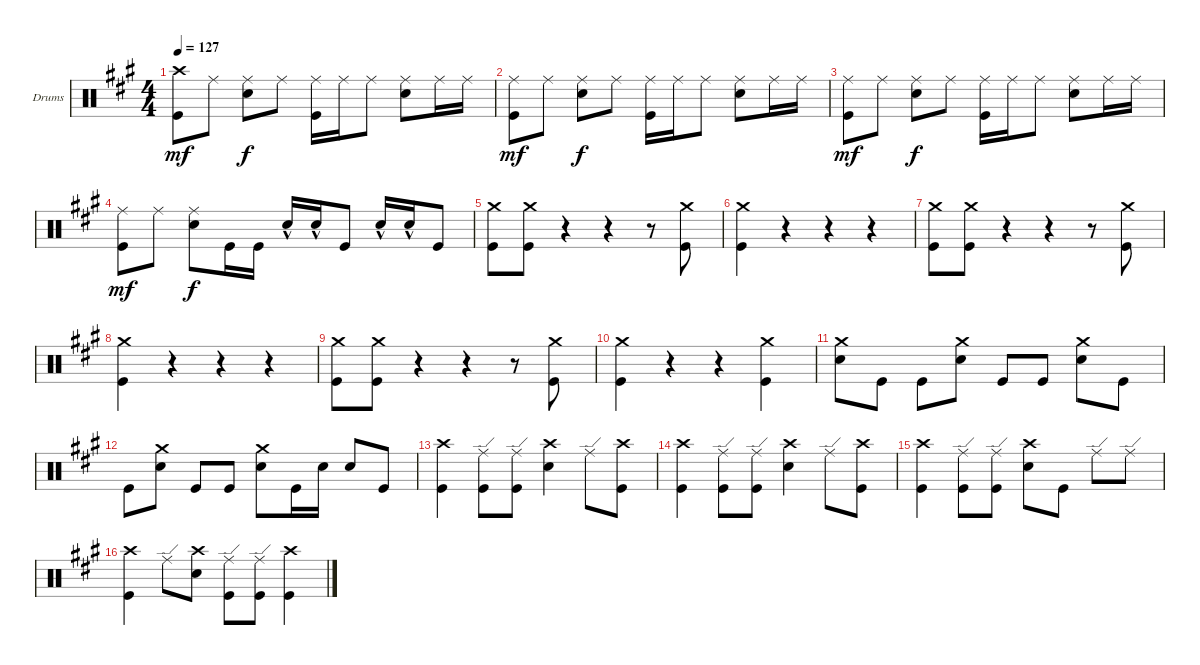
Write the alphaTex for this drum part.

\bracketExtendMode groupsimilarinstruments
\firstSystemTrackNameOrientation horizontal
\otherSystemsTrackNameOrientation horizontal
\track ("Drumkit" "Drums") {instrument percussion}
\staff {score}
\articulation defaults
\ts (4 4)
\tempo 127
\clef neutral
\ks f#minor
("Kick (hit)" "Crash high (hit)").8{dy mf} "Ride (middle)".8 ("Snare (hit) 2" "Ride (middle)").8{dy f} "Ride (middle)".8 ("Ride (middle)" "Kick (hit)").16 "Ride (middle)".16 "Ride (middle)".8 ("Ride (middle)" "Snare (hit) 2").8 "Ride (middle)".16 "Ride (middle)".16 |
("Kick (hit)" "Ride (middle)").8{dy mf} "Ride (middle)".8 ("Snare (hit) 2" "Ride (middle)").8{dy f} "Ride (middle)".8 ("Ride (middle)" "Kick (hit)").16 "Ride (middle)".16 "Ride (middle)".8 ("Ride (middle)" "Snare (hit) 2").8 "Ride (middle)".16 "Ride (middle)".16 |
("Kick (hit)" "Ride (middle)").8{dy mf} "Ride (middle)".8 ("Snare (hit) 2" "Ride (middle)").8{dy f} "Ride (middle)".8 ("Ride (middle)" "Kick (hit)").16 "Ride (middle)".16 "Ride (middle)".8 ("Ride (middle)" "Snare (hit) 2").8 "Ride (middle)".16 "Ride (middle)".16 |
("Kick (hit)" "Ride (middle)").8{dy mf} "Ride (middle)".8 ("Snare (hit) 2" "Ride (middle)").8{dy f} "Kick (hit)".16 "Kick (hit)".16 "Snare (hit) 2"{hac}.16 "Snare (hit) 2"{hac}.16 "Kick (hit)".8 "Snare (hit) 2"{hac}.16 "Snare (hit) 2"{hac}.16 "Kick (hit)".8 |
("Crash medium (hit)" "Kick (hit)").8 ("Crash medium (hit)" "Kick (hit)").8 r.4 r.4 r.8 ("Kick (hit)" "Crash medium (hit)").8 |
("Crash medium (hit)" "Kick (hit)").4 r.4 r.4 r.4 |
("Crash medium (hit)" "Kick (hit)").8 ("Crash medium (hit)" "Kick (hit)").8 r.4 r.4 r.8 ("Kick (hit)" "Crash medium (hit)").8 |
("Crash medium (hit)" "Kick (hit)").4 r.4 r.4 r.4 |
("Crash medium (hit)" "Kick (hit)").8 ("Crash medium (hit)" "Kick (hit)").8 r.4 r.4 r.8 ("Kick (hit)" "Crash medium (hit)").8 |
("Crash medium (hit)" "Kick (hit)").4 r.4 r.4 ("Crash medium (hit)" "Kick (hit)").4 |
("Snare (hit) 2" "Crash medium (hit)").8 "Kick (hit)".8 "Kick (hit)".8 ("Snare (hit) 2" "Crash medium (hit)").8 "Kick (hit)".8 "Kick (hit)".8 ("Snare (hit) 2" "Crash medium (hit)").8 "Kick (hit)".8 |
"Kick (hit)".8 ("Snare (hit) 2" "Crash medium (hit)").8 "Kick (hit)".8 "Kick (hit)".8 ("Snare (hit) 2" "Crash medium (hit)").8 "Kick (hit)".16 "Snare (hit) 2".16 "Snare (hit) 2".8 "Kick (hit)".8 |
("Kick (hit)" "Crash high (hit)").4 ("Ride (edge)" "Kick (hit)").8 ("Ride (edge)" "Kick (hit)").8 ("Snare (hit) 2" "Crash high (hit)").4 "Ride (edge)".8 ("Kick (hit)" "Crash high (hit)").8 |
("Kick (hit)" "Crash high (hit)").4 ("Ride (edge)" "Kick (hit)").8 ("Ride (edge)" "Kick (hit)").8 ("Snare (hit) 2" "Crash high (hit)").4 "Ride (edge)".8 ("Kick (hit)" "Crash high (hit)").8 |
("Kick (hit)" "Crash high (hit)").4 ("Ride (edge)" "Kick (hit)").8 ("Ride (edge)" "Kick (hit)").8 ("Snare (hit) 2" "Crash high (hit)").8 "Kick (hit)".8 "Ride (edge)".8 "Ride (edge)".8 |
("Crash high (hit)" "Kick (hit)").4 "Ride (edge)".8 ("Crash high (hit)" "Snare (hit) 2").8 ("Ride (edge)" "Kick (hit)").8 ("Ride (edge)" "Kick (hit)").8 ("Kick (hit)" "Crash high (hit)").4
